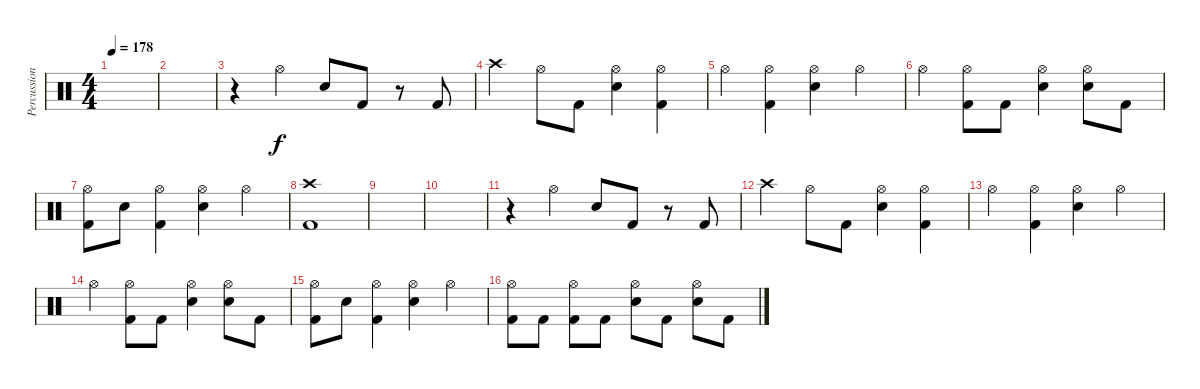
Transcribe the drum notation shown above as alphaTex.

\track ("Percussion" "Percussion") {instrument percussion}
\staff {score}
\articulation defaults
\ts (4 4)
\tempo 178
\clef neutral
\ks c
|
|
r.4 "Hi-Hat (open)".4 "Snare (hit) 2".8 "Kick (hit) 2".8 r.8 "Kick (hit) 2".8 |
"Crash high (hit)".4 "Hi-Hat (open)".8 "Kick (hit) 2".8 ("Hi-Hat (open)" "Snare (hit) 2").4 ("Hi-Hat (open)" "Kick (hit) 2").4 |
"Hi-Hat (open)".4 ("Hi-Hat (open)" "Kick (hit) 2").4 ("Hi-Hat (open)" "Snare (hit) 2").4 "Hi-Hat (open)".4 |
"Hi-Hat (open)".4 ("Hi-Hat (open)" "Kick (hit) 2").8 "Kick (hit) 2".8 ("Hi-Hat (open)" "Snare (hit) 2").4 ("Hi-Hat (open)" "Snare (hit) 2").8 "Kick (hit) 2".8 |
("Hi-Hat (open)" "Kick (hit) 2").8 "Snare (hit) 2".8 ("Hi-Hat (open)" "Kick (hit) 2").4 ("Hi-Hat (open)" "Snare (hit) 2").4 "Hi-Hat (open)".4 |
("Crash high (hit)" "Kick (hit) 2").1 |
|
|
r.4 "Hi-Hat (open)".4 "Snare (hit) 2".8 "Kick (hit) 2".8 r.8 "Kick (hit) 2".8 |
"Crash high (hit)".4 "Hi-Hat (open)".8 "Kick (hit) 2".8 ("Hi-Hat (open)" "Snare (hit) 2").4 ("Hi-Hat (open)" "Kick (hit) 2").4 |
"Hi-Hat (open)".4 ("Hi-Hat (open)" "Kick (hit) 2").4 ("Hi-Hat (open)" "Snare (hit) 2").4 "Hi-Hat (open)".4 |
"Hi-Hat (open)".4 ("Hi-Hat (open)" "Kick (hit) 2").8 "Kick (hit) 2".8 ("Hi-Hat (open)" "Snare (hit) 2").4 ("Hi-Hat (open)" "Snare (hit) 2").8 "Kick (hit) 2".8 |
("Hi-Hat (open)" "Kick (hit) 2").8 "Snare (hit) 2".8 ("Hi-Hat (open)" "Kick (hit) 2").4 ("Hi-Hat (open)" "Snare (hit) 2").4 "Hi-Hat (open)".4 |
("Hi-Hat (open)" "Kick (hit) 2").8 "Kick (hit) 2".8 ("Hi-Hat (open)" "Kick (hit) 2").8 "Kick (hit) 2".8 ("Hi-Hat (open)" "Snare (hit) 2").8 "Kick (hit) 2".8 ("Hi-Hat (open)" "Snare (hit) 2").8 "Kick (hit) 2".8
